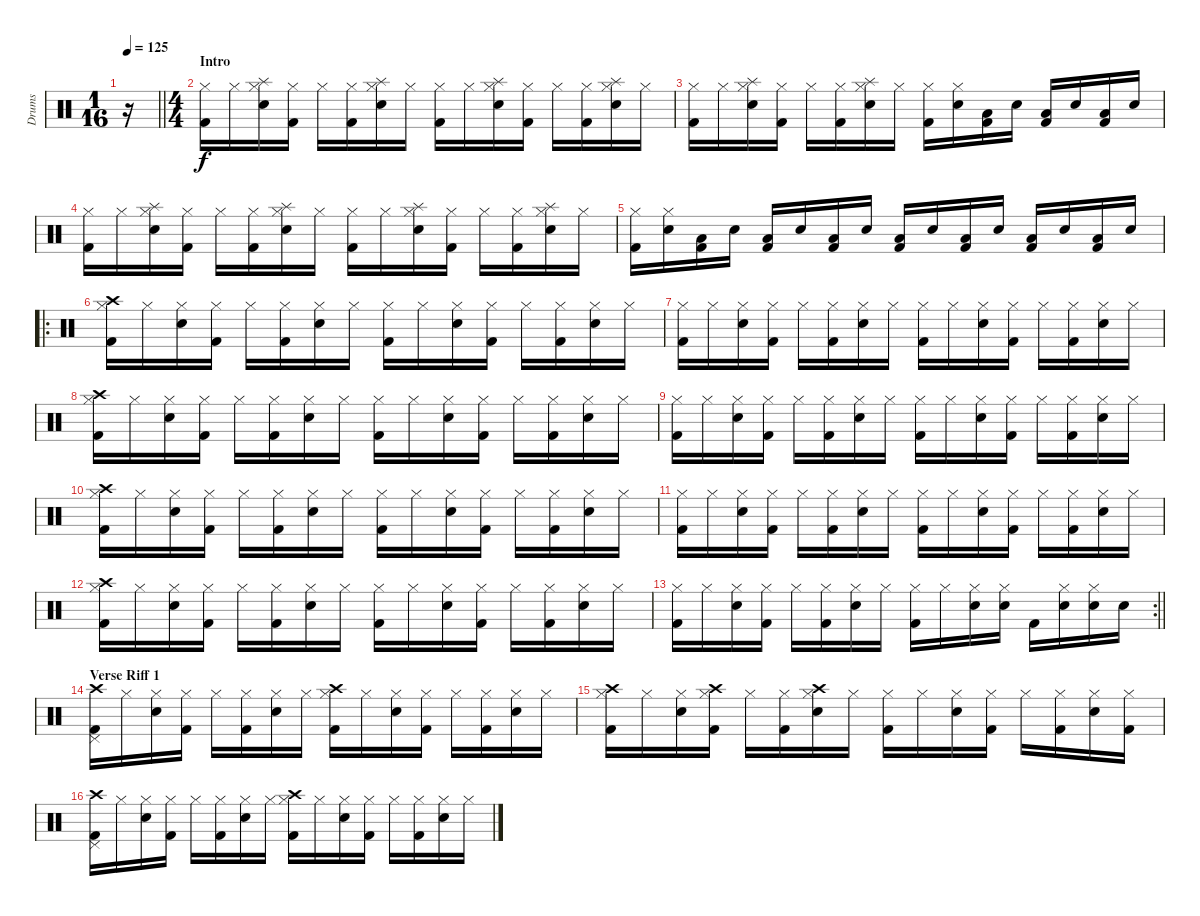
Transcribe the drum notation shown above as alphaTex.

\track ("Drums" "Drums") {instrument percussion}
\staff {score}
\articulation defaults
\ts (1 16)
\tempo 125
\clef neutral
\barLineRight lightlight
\ks c
r.16{dy f} |
\ts (4 4)
\section ("" "Intro")
("Kick (hit) 2" "Hi-Hat (closed)").16 "Hi-Hat (closed)".16 ("Snare (hit) 2" "Hi-Hat (closed)" "Splash (hit)").16 ("Kick (hit) 2" "Hi-Hat (closed)").16 "Hi-Hat (closed)".16 ("Kick (hit) 2" "Hi-Hat (closed)").16 ("Snare (hit) 2" "Hi-Hat (closed)" "Splash (hit)").16 "Hi-Hat (closed)".16 ("Kick (hit) 2" "Hi-Hat (closed)").16 "Hi-Hat (closed)".16 ("Snare (hit) 2" "Hi-Hat (closed)" "Splash (hit)").16 ("Kick (hit) 2" "Hi-Hat (closed)").16 "Hi-Hat (closed)".16 ("Kick (hit) 2" "Hi-Hat (closed)").16 ("Snare (hit) 2" "Hi-Hat (closed)" "Splash (hit)").16 "Hi-Hat (closed)".16 |
("Kick (hit) 2" "Hi-Hat (closed)").16 "Hi-Hat (closed)".16 ("Snare (hit) 2" "Hi-Hat (closed)" "Splash (hit)").16 ("Kick (hit) 2" "Hi-Hat (closed)").16 "Hi-Hat (closed)".16 ("Kick (hit) 2" "Hi-Hat (closed)").16 ("Snare (hit) 2" "Hi-Hat (closed)" "Splash (hit)").16 "Hi-Hat (closed)".16 ("Kick (hit) 2" "Hi-Hat (closed)").16 ("Snare (hit) 2" "Hi-Hat (closed)").16 ("Kick (hit) 2" "Low Tom (hit)").16 "Snare (hit) 2".16 ("Kick (hit) 2" "Low Tom (hit)").16 "Snare (hit) 2".16 ("Kick (hit) 2" "Low Tom (hit)").16 "Snare (hit) 2".16 |
("Kick (hit) 2" "Hi-Hat (closed)").16 "Hi-Hat (closed)".16 ("Snare (hit) 2" "Hi-Hat (closed)" "Splash (hit)").16 ("Kick (hit) 2" "Hi-Hat (closed)").16 "Hi-Hat (closed)".16 ("Kick (hit) 2" "Hi-Hat (closed)").16 ("Snare (hit) 2" "Hi-Hat (closed)" "Splash (hit)").16 "Hi-Hat (closed)".16 ("Kick (hit) 2" "Hi-Hat (closed)").16 "Hi-Hat (closed)".16 ("Snare (hit) 2" "Hi-Hat (closed)" "Splash (hit)").16 ("Kick (hit) 2" "Hi-Hat (closed)").16 "Hi-Hat (closed)".16 ("Kick (hit) 2" "Hi-Hat (closed)").16 ("Snare (hit) 2" "Hi-Hat (closed)" "Splash (hit)").16 "Hi-Hat (closed)".16 |
("Kick (hit) 2" "Hi-Hat (closed)").16 ("Snare (hit) 2" "Hi-Hat (closed)").16 ("Kick (hit) 2" "Low Tom (hit)").16 "Snare (hit) 2".16 ("Kick (hit) 2" "Low Tom (hit)").16 "Snare (hit) 2".16 ("Kick (hit) 2" "Low Tom (hit)").16 "Snare (hit) 2".16 ("Kick (hit) 2" "Low Tom (hit)").16 "Snare (hit) 2".16 ("Kick (hit) 2" "Low Tom (hit)").16 "Snare (hit) 2".16 ("Kick (hit) 2" "Low Tom (hit)").16 "Snare (hit) 2".16 ("Kick (hit) 2" "Low Tom (hit)").16 "Snare (hit) 2".16 |
\ro
("Kick (hit) 2" "Hi-Hat (closed)" "Crash high (hit)").16 "Hi-Hat (closed)".16 ("Snare (hit) 2" "Hi-Hat (closed)").16 ("Kick (hit) 2" "Hi-Hat (closed)").16 "Hi-Hat (closed)".16 ("Kick (hit) 2" "Hi-Hat (closed)").16 ("Snare (hit) 2" "Hi-Hat (closed)").16 "Hi-Hat (closed)".16 ("Kick (hit) 2" "Hi-Hat (closed)").16 "Hi-Hat (closed)".16 ("Snare (hit) 2" "Hi-Hat (closed)").16 ("Kick (hit) 2" "Hi-Hat (closed)").16 "Hi-Hat (closed)".16 ("Kick (hit) 2" "Hi-Hat (closed)").16 ("Snare (hit) 2" "Hi-Hat (closed)").16 "Hi-Hat (closed)".16 |
("Kick (hit) 2" "Hi-Hat (closed)").16 "Hi-Hat (closed)".16 ("Snare (hit) 2" "Hi-Hat (closed)").16 ("Kick (hit) 2" "Hi-Hat (closed)").16 "Hi-Hat (closed)".16 ("Kick (hit) 2" "Hi-Hat (closed)").16 ("Snare (hit) 2" "Hi-Hat (closed)").16 "Hi-Hat (closed)".16 ("Kick (hit) 2" "Hi-Hat (closed)").16 "Hi-Hat (closed)".16 ("Snare (hit) 2" "Hi-Hat (closed)").16 ("Kick (hit) 2" "Hi-Hat (closed)").16 "Hi-Hat (closed)".16 ("Kick (hit) 2" "Hi-Hat (closed)").16 ("Snare (hit) 2" "Hi-Hat (closed)").16 "Hi-Hat (closed)".16 |
("Kick (hit) 2" "Hi-Hat (closed)" "Crash high (hit)").16 "Hi-Hat (closed)".16 ("Snare (hit) 2" "Hi-Hat (closed)").16 ("Kick (hit) 2" "Hi-Hat (closed)").16 "Hi-Hat (closed)".16 ("Kick (hit) 2" "Hi-Hat (closed)").16 ("Snare (hit) 2" "Hi-Hat (closed)").16 "Hi-Hat (closed)".16 ("Kick (hit) 2" "Hi-Hat (closed)").16 "Hi-Hat (closed)".16 ("Snare (hit) 2" "Hi-Hat (closed)").16 ("Kick (hit) 2" "Hi-Hat (closed)").16 "Hi-Hat (closed)".16 ("Kick (hit) 2" "Hi-Hat (closed)").16 ("Snare (hit) 2" "Hi-Hat (closed)").16 "Hi-Hat (closed)".16 |
("Kick (hit) 2" "Hi-Hat (closed)").16 "Hi-Hat (closed)".16 ("Snare (hit) 2" "Hi-Hat (closed)").16 ("Kick (hit) 2" "Hi-Hat (closed)").16 "Hi-Hat (closed)".16 ("Kick (hit) 2" "Hi-Hat (closed)").16 ("Snare (hit) 2" "Hi-Hat (closed)").16 "Hi-Hat (closed)".16 ("Kick (hit) 2" "Hi-Hat (closed)").16 "Hi-Hat (closed)".16 ("Snare (hit) 2" "Hi-Hat (closed)").16 ("Kick (hit) 2" "Hi-Hat (closed)").16 "Hi-Hat (closed)".16 ("Kick (hit) 2" "Hi-Hat (closed)").16 ("Snare (hit) 2" "Hi-Hat (closed)").16 "Hi-Hat (closed)".16 |
("Kick (hit) 2" "Hi-Hat (closed)" "Crash high (hit)").16 "Hi-Hat (closed)".16 ("Snare (hit) 2" "Hi-Hat (closed)").16 ("Kick (hit) 2" "Hi-Hat (closed)").16 "Hi-Hat (closed)".16 ("Kick (hit) 2" "Hi-Hat (closed)").16 ("Snare (hit) 2" "Hi-Hat (closed)").16 "Hi-Hat (closed)".16 ("Kick (hit) 2" "Hi-Hat (closed)").16 "Hi-Hat (closed)".16 ("Snare (hit) 2" "Hi-Hat (closed)").16 ("Kick (hit) 2" "Hi-Hat (closed)").16 "Hi-Hat (closed)".16 ("Kick (hit) 2" "Hi-Hat (closed)").16 ("Snare (hit) 2" "Hi-Hat (closed)").16 "Hi-Hat (closed)".16 |
("Kick (hit) 2" "Hi-Hat (closed)").16 "Hi-Hat (closed)".16 ("Snare (hit) 2" "Hi-Hat (closed)").16 ("Kick (hit) 2" "Hi-Hat (closed)").16 "Hi-Hat (closed)".16 ("Kick (hit) 2" "Hi-Hat (closed)").16 ("Snare (hit) 2" "Hi-Hat (closed)").16 "Hi-Hat (closed)".16 ("Kick (hit) 2" "Hi-Hat (closed)").16 "Hi-Hat (closed)".16 ("Snare (hit) 2" "Hi-Hat (closed)").16 ("Kick (hit) 2" "Hi-Hat (closed)").16 "Hi-Hat (closed)".16 ("Kick (hit) 2" "Hi-Hat (closed)").16 ("Snare (hit) 2" "Hi-Hat (closed)").16 "Hi-Hat (closed)".16 |
("Kick (hit) 2" "Hi-Hat (closed)" "Crash high (hit)").16 "Hi-Hat (closed)".16 ("Snare (hit) 2" "Hi-Hat (closed)").16 ("Kick (hit) 2" "Hi-Hat (closed)").16 "Hi-Hat (closed)".16 ("Kick (hit) 2" "Hi-Hat (closed)").16 ("Snare (hit) 2" "Hi-Hat (closed)").16 "Hi-Hat (closed)".16 ("Kick (hit) 2" "Hi-Hat (closed)").16 "Hi-Hat (closed)".16 ("Snare (hit) 2" "Hi-Hat (closed)").16 ("Kick (hit) 2" "Hi-Hat (closed)").16 "Hi-Hat (closed)".16 ("Kick (hit) 2" "Hi-Hat (closed)").16 ("Snare (hit) 2" "Hi-Hat (closed)").16 "Hi-Hat (closed)".16 |
\rc 2
\barLineRight lightlight
("Kick (hit) 2" "Hi-Hat (closed)").16 "Hi-Hat (closed)".16 ("Snare (hit) 2" "Hi-Hat (closed)").16 ("Kick (hit) 2" "Hi-Hat (closed)").16 "Hi-Hat (closed)".16 ("Kick (hit) 2" "Hi-Hat (closed)").16 ("Snare (hit) 2" "Hi-Hat (closed)").16 "Hi-Hat (closed)".16 ("Kick (hit) 2" "Hi-Hat (closed)").16 "Hi-Hat (closed)".16 ("Snare (hit) 2" "Hi-Hat (closed)").16 ("Snare (hit) 2" "Hi-Hat (closed)").16 "Kick (hit) 2".16 ("Snare (hit) 2" "Hi-Hat (closed)").16 ("Snare (hit) 2" "Hi-Hat (closed)").16 "Snare (hit) 2".16 |
\section ("" "Verse Riff 1")
("Kick (hit) 2" "Pedal Hi-Hat (hit)" "Crash high (hit)").16 "Hi-Hat (closed)".16 ("Snare (hit) 2" "Hi-Hat (closed)").16 ("Kick (hit) 2" "Hi-Hat (closed)").16 "Hi-Hat (closed)".16 ("Kick (hit) 2" "Hi-Hat (closed)").16 ("Snare (hit) 2" "Hi-Hat (closed)").16 "Hi-Hat (closed)".16 ("Kick (hit) 2" "Hi-Hat (closed)" "Crash high (hit)").16 "Hi-Hat (closed)".16 ("Snare (hit) 2" "Hi-Hat (closed)").16 ("Kick (hit) 2" "Hi-Hat (closed)").16 "Hi-Hat (closed)".16 ("Kick (hit) 2" "Hi-Hat (closed)").16 ("Snare (hit) 2" "Hi-Hat (closed)").16 "Hi-Hat (closed)".16 |
("Kick (hit) 2" "Hi-Hat (closed)" "Crash high (hit)").16 "Hi-Hat (closed)".16 ("Snare (hit) 2" "Hi-Hat (closed)").16 ("Kick (hit) 2" "Hi-Hat (closed)" "Crash high (hit)").16 "Hi-Hat (closed)".16 ("Kick (hit) 2" "Hi-Hat (closed)").16 ("Snare (hit) 2" "Hi-Hat (closed)" "Crash high (hit)").16 "Hi-Hat (closed)".16 ("Kick (hit) 2" "Hi-Hat (closed)").16 "Hi-Hat (closed)".16 ("Snare (hit) 2" "Hi-Hat (closed)").16 ("Kick (hit) 2" "Hi-Hat (closed)").16 "Hi-Hat (closed)".16 ("Kick (hit) 2" "Hi-Hat (closed)").16 ("Snare (hit) 2" "Hi-Hat (closed)").16 ("Kick (hit) 2" "Hi-Hat (closed)").16 |
("Kick (hit) 2" "Pedal Hi-Hat (hit)" "Crash high (hit)").16 "Hi-Hat (closed)".16 ("Snare (hit) 2" "Hi-Hat (closed)").16 ("Kick (hit) 2" "Hi-Hat (closed)").16 "Hi-Hat (closed)".16 ("Kick (hit) 2" "Hi-Hat (closed)").16 ("Snare (hit) 2" "Hi-Hat (closed)").16 "Hi-Hat (closed)".16 ("Kick (hit) 2" "Hi-Hat (closed)" "Crash high (hit)").16 "Hi-Hat (closed)".16 ("Snare (hit) 2" "Hi-Hat (closed)").16 ("Kick (hit) 2" "Hi-Hat (closed)").16 "Hi-Hat (closed)".16 ("Kick (hit) 2" "Hi-Hat (closed)").16 ("Snare (hit) 2" "Hi-Hat (closed)").16 "Hi-Hat (closed)".16
